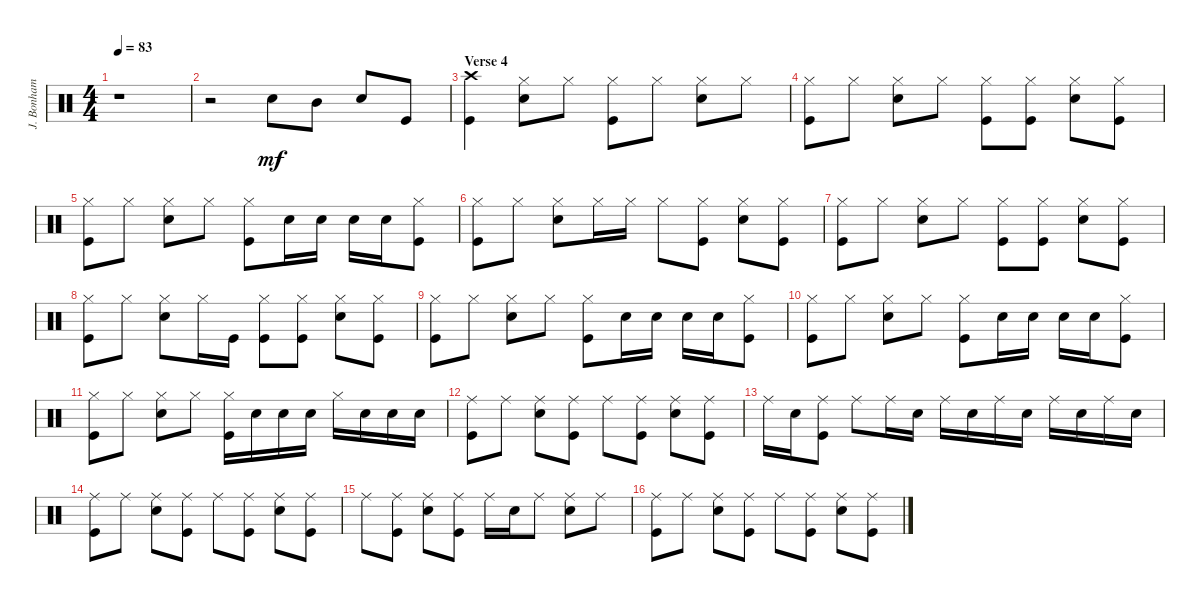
\track ("J. Bonham" "J. Bonham") {instrument percussion}
\staff {score}
\articulation defaults
\ts (4 4)
\tempo 83
\clef neutral
\ks c
r.1{dy mf} |
r.2 "Snare (hit) 2".8 "Mid Tom (hit)".8 "Snare (hit) 2".8 "Kick (hit)".8 |
\section ("" "Verse 4")
("Crash high (hit)" "Kick (hit)").4 ("Hi-Hat (closed)" "Snare (hit) 2").8 "Hi-Hat (closed)".8 ("Hi-Hat (closed)" "Kick (hit)").8 "Hi-Hat (closed)".8 ("Hi-Hat (closed)" "Snare (hit) 2").8 "Hi-Hat (closed)".8 |
("Hi-Hat (closed)" "Kick (hit)").8 "Hi-Hat (closed)".8 ("Hi-Hat (closed)" "Snare (hit) 2").8 "Hi-Hat (closed)".8 ("Hi-Hat (closed)" "Kick (hit)").8 ("Hi-Hat (closed)" "Kick (hit)").8 ("Hi-Hat (closed)" "Snare (hit) 2").8 ("Hi-Hat (closed)" "Kick (hit)").8 |
("Hi-Hat (closed)" "Kick (hit)").8 "Hi-Hat (closed)".8 ("Hi-Hat (closed)" "Snare (hit) 2").8 "Hi-Hat (closed)".8 ("Hi-Hat (closed)" "Kick (hit)").8 "Snare (hit) 2".16 "Snare (hit) 2".16 "Snare (hit) 2".16 "Snare (hit) 2".16 ("Hi-Hat (closed)" "Kick (hit)").8 |
("Hi-Hat (closed)" "Kick (hit)").8 "Hi-Hat (closed)".8 ("Hi-Hat (closed)" "Snare (hit) 2").8 "Hi-Hat (closed)".16 "Hi-Hat (closed)".16 "Hi-Hat (closed)".8 ("Hi-Hat (closed)" "Kick (hit)").8 ("Hi-Hat (closed)" "Snare (hit) 2").8 ("Hi-Hat (closed)" "Kick (hit)").8 |
("Hi-Hat (closed)" "Kick (hit)").8 "Hi-Hat (closed)".8 ("Hi-Hat (closed)" "Snare (hit) 2").8 "Hi-Hat (closed)".8 ("Hi-Hat (closed)" "Kick (hit)").8 ("Hi-Hat (closed)" "Kick (hit)").8 ("Hi-Hat (closed)" "Snare (hit) 2").8 ("Hi-Hat (closed)" "Kick (hit)").8 |
("Hi-Hat (closed)" "Kick (hit)").8 "Hi-Hat (closed)".8 ("Hi-Hat (closed)" "Snare (hit) 2").8 "Hi-Hat (closed)".16 "Kick (hit)".16 ("Hi-Hat (closed)" "Kick (hit)").8 ("Hi-Hat (closed)" "Kick (hit)").8 ("Hi-Hat (closed)" "Snare (hit) 2").8 ("Hi-Hat (closed)" "Kick (hit)").8 |
("Hi-Hat (closed)" "Kick (hit)").8 "Hi-Hat (closed)".8 ("Hi-Hat (closed)" "Snare (hit) 2").8 "Hi-Hat (closed)".8 ("Hi-Hat (closed)" "Kick (hit)").8 "Snare (hit) 2".16 "Snare (hit) 2".16 "Snare (hit) 2".16 "Snare (hit) 2".16 ("Hi-Hat (closed)" "Kick (hit)").8 |
("Hi-Hat (closed)" "Kick (hit)").8 "Hi-Hat (closed)".8 ("Hi-Hat (closed)" "Snare (hit) 2").8 "Hi-Hat (closed)".8 ("Hi-Hat (closed)" "Kick (hit)").8 "Snare (hit) 2".16 "Snare (hit) 2".16 "Snare (hit) 2".16 "Snare (hit) 2".16 ("Hi-Hat (closed)" "Kick (hit)").8 |
("Hi-Hat (closed)" "Kick (hit)").8 "Hi-Hat (closed)".8 ("Hi-Hat (closed)" "Snare (hit) 2").8 "Hi-Hat (closed)".8 ("Hi-Hat (closed)" "Kick (hit)").16 "Snare (hit) 2".16 "Snare (hit) 2".16 "Snare (hit) 2".16 "Hi-Hat (closed)".16 "Snare (hit) 2".16 "Snare (hit) 2".16 "Snare (hit) 2".16 |
("Ride (middle)" "Kick (hit)").8 "Ride (middle)".8 ("Ride (middle)" "Snare (hit) 2").8 ("Ride (middle)" "Kick (hit)").8 "Ride (middle)".8 ("Ride (middle)" "Kick (hit)").8 ("Ride (middle)" "Snare (hit) 2").8 ("Ride (middle)" "Kick (hit)").8 |
"Ride (middle)".16 "Snare (hit) 2".16 ("Ride (middle)" "Kick (hit)").8 "Ride (middle)".8 "Ride (middle)".16 "Snare (hit) 2".16 "Ride (middle)".16 "Snare (hit) 2".16 "Ride (middle)".16 "Snare (hit) 2".16 "Ride (middle)".16 "Snare (hit) 2".16 "Ride (middle)".16 "Snare (hit) 2".16 |
("Ride (middle)" "Kick (hit)").8 "Ride (middle)".8 ("Ride (middle)" "Snare (hit) 2").8 ("Ride (middle)" "Kick (hit)").8 "Ride (middle)".8 ("Ride (middle)" "Kick (hit)").8 ("Ride (middle)" "Snare (hit) 2").8 ("Ride (middle)" "Kick (hit)").8 |
"Ride (middle)".8 ("Ride (middle)" "Kick (hit)").8 ("Ride (middle)" "Snare (hit) 2").8 ("Ride (middle)" "Kick (hit)").8 "Ride (middle)".16 "Snare (hit) 2".16 "Ride (middle)".8 ("Ride (middle)" "Snare (hit) 2").8 "Ride (middle)".8 |
("Ride (middle)" "Kick (hit)").8 "Ride (middle)".8 ("Ride (middle)" "Snare (hit) 2").8 ("Ride (middle)" "Kick (hit)").8 "Ride (middle)".8 ("Ride (middle)" "Kick (hit)").8 ("Ride (middle)" "Snare (hit) 2").8 ("Ride (middle)" "Kick (hit)").8
